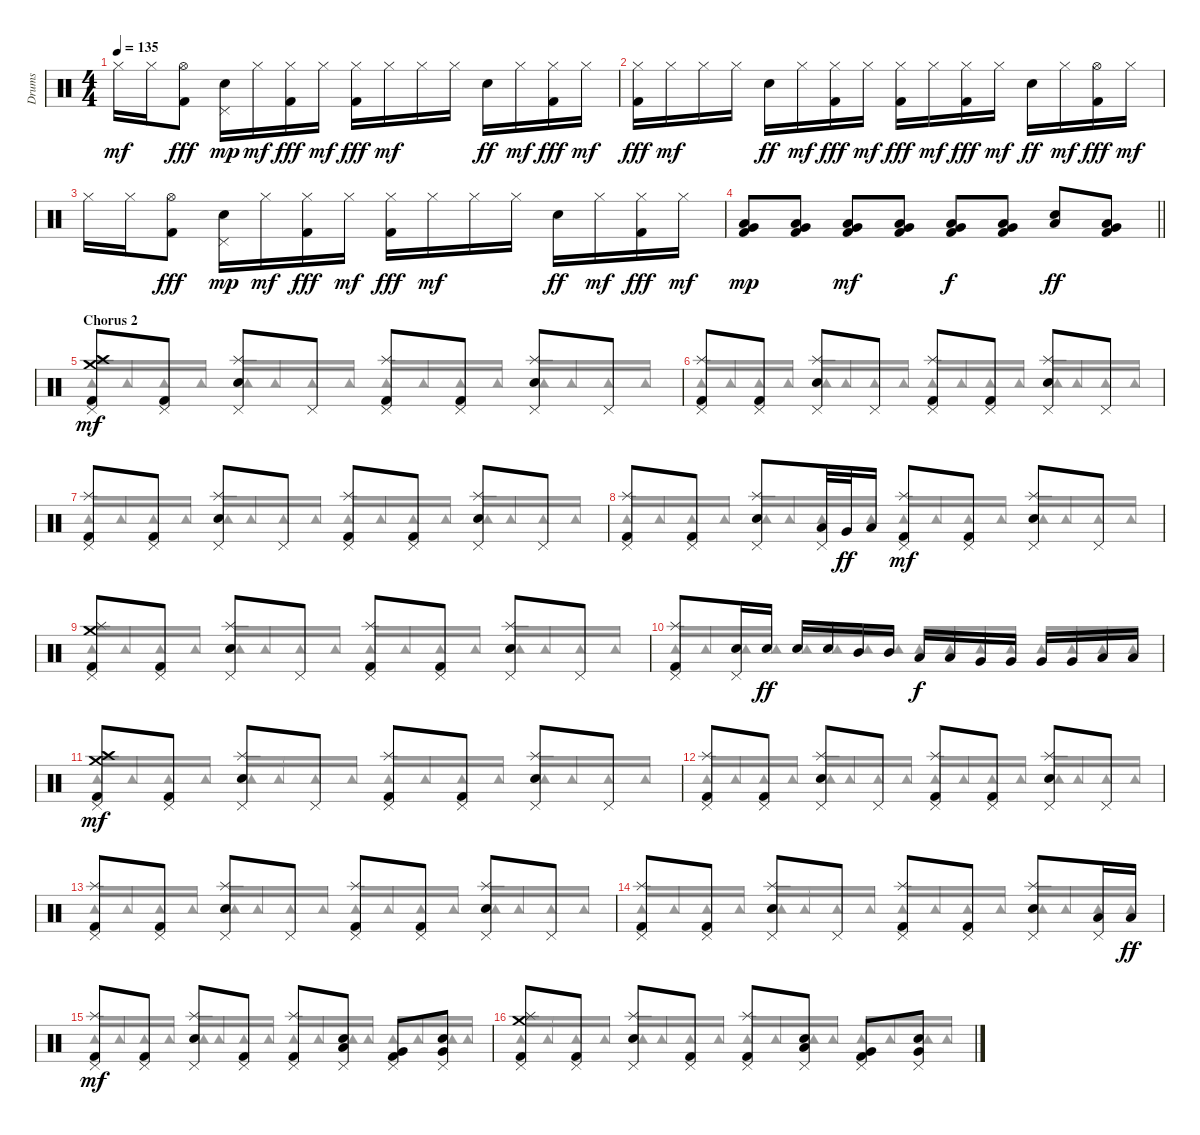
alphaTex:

\track ("Drums" "Drums") {instrument percussion}
\staff {score}
\articulation defaults
\voice
\ts (4 4)
\tempo 135
\clef neutral
\ks c "Hi-Hat (closed)".16{dy mf} "Hi-Hat (closed)".16
("Hi-Hat (open)" "Kick (hit) 2").8{dy fff} ("Snare (hit) 2" "Pedal Hi-Hat (hit)").16{dy mp} "Hi-Hat (closed)".16{dy mf} ("Hi-Hat (closed)" "Kick (hit) 2").16{dy fff} "Hi-Hat (closed)".16{dy mf} ("Hi-Hat (closed)" "Kick (hit) 2").16{dy fff} "Hi-Hat (closed)".16{dy mf} "Hi-Hat (closed)".16 "Hi-Hat (closed)".16 "Snare (hit) 2".16{dy ff} "Hi-Hat (closed)".16{dy mf} ("Hi-Hat (closed)" "Kick (hit) 2").16{dy fff} "Hi-Hat (closed)".16{dy mf} |
("Hi-Hat (closed)" "Kick (hit) 2").16{dy fff} "Hi-Hat (closed)".16{dy mf} "Hi-Hat (closed)".16 "Hi-Hat (closed)".16 "Snare (hit) 2".16{dy ff} "Hi-Hat (closed)".16{dy mf} ("Hi-Hat (closed)" "Kick (hit) 2").16{dy fff} "Hi-Hat (closed)".16{dy mf} ("Hi-Hat (closed)" "Kick (hit) 2").16{dy fff} "Hi-Hat (closed)".16{dy mf} ("Hi-Hat (closed)" "Kick (hit) 2").16{dy fff} "Hi-Hat (closed)".16{dy mf} "Snare (hit) 2".16{dy ff} "Hi-Hat (closed)".16{dy mf} ("Hi-Hat (open)" "Kick (hit) 2").16{dy fff} "Hi-Hat (closed)".16{dy mf} |
"Hi-Hat (closed)".16 "Hi-Hat (closed)".16 ("Hi-Hat (open)" "Kick (hit) 2").8{dy fff} ("Snare (hit) 2" "Pedal Hi-Hat (hit)").16{dy mp} "Hi-Hat (closed)".16{dy mf} ("Hi-Hat (closed)" "Kick (hit) 2").16{dy fff} "Hi-Hat (closed)".16{dy mf} ("Hi-Hat (closed)" "Kick (hit) 2").16{dy fff} "Hi-Hat (closed)".16{dy mf} "Hi-Hat (closed)".16 "Hi-Hat (closed)".16 "Snare (hit) 2".16{dy ff} "Hi-Hat (closed)".16{dy mf} ("Hi-Hat (closed)" "Kick (hit) 2").16{dy fff} "Hi-Hat (closed)".16{dy mf} |
\barLineRight lightlight
("Low Floor Tom (hit)" "Very Low Tom (hit)" "Kick (hit) 2").8{dy mp} ("Low Floor Tom (hit)" "Very Low Tom (hit)" "Kick (hit) 2").8 ("Low Floor Tom (hit)" "Very Low Tom (hit)" "Kick (hit) 2").8{dy mf} ("Low Floor Tom (hit)" "Very Low Tom (hit)" "Kick (hit) 2").8 ("Low Floor Tom (hit)" "Very Low Tom (hit)" "Kick (hit) 2").8{dy f} ("Low Floor Tom (hit)" "Very Low Tom (hit)" "Kick (hit) 2").8 ("Low Tom (hit)" "Snare (hit) 2").8{dy ff} ("Low Floor Tom (hit)" "Very Low Tom (hit)" "Kick (hit) 2").8 |
\section ("" "Chorus 2")
("Crash high (hit)" "Crash medium (hit)" "Kick (hit) 2" "Pedal Hi-Hat (hit)").8{dy mf} ("Kick (hit) 2" "Pedal Hi-Hat (hit)").8 ("Splash (hit)" "Snare (hit) 2" "Pedal Hi-Hat (hit)").8 "Pedal Hi-Hat (hit)".8 ("Splash (hit)" "Kick (hit) 2" "Pedal Hi-Hat (hit)").8 ("Kick (hit) 2" "Pedal Hi-Hat (hit)").8 ("Splash (hit)" "Snare (hit) 2" "Pedal Hi-Hat (hit)").8 "Pedal Hi-Hat (hit)".8 |
("Splash (hit)" "Kick (hit) 2" "Pedal Hi-Hat (hit)").8 ("Kick (hit) 2" "Pedal Hi-Hat (hit)").8 ("Splash (hit)" "Snare (hit) 2" "Pedal Hi-Hat (hit)").8 "Pedal Hi-Hat (hit)".8 ("Splash (hit)" "Kick (hit) 2" "Pedal Hi-Hat (hit)").8 ("Kick (hit) 2" "Pedal Hi-Hat (hit)").8 ("Splash (hit)" "Snare (hit) 2" "Pedal Hi-Hat (hit)").8 "Pedal Hi-Hat (hit)".8 |
("Splash (hit)" "Kick (hit) 2" "Pedal Hi-Hat (hit)").8 ("Kick (hit) 2" "Pedal Hi-Hat (hit)").8 ("Splash (hit)" "Snare (hit) 2" "Pedal Hi-Hat (hit)").8 "Pedal Hi-Hat (hit)".8 ("Splash (hit)" "Kick (hit) 2" "Pedal Hi-Hat (hit)").8 ("Kick (hit) 2" "Pedal Hi-Hat (hit)").8 ("Splash (hit)" "Snare (hit) 2" "Pedal Hi-Hat (hit)").8 "Pedal Hi-Hat (hit)".8 |
("Splash (hit)" "Kick (hit) 2" "Pedal Hi-Hat (hit)").8 ("Kick (hit) 2" "Pedal Hi-Hat (hit)").8 ("Splash (hit)" "Snare (hit) 2" "Pedal Hi-Hat (hit)").8 ("Low Tom (hit)" "Pedal Hi-Hat (hit)").32 "Very Low Tom (hit)".32{dy ff} "Low Floor Tom (hit)".16 ("Splash (hit)" "Kick (hit) 2" "Pedal Hi-Hat (hit)").8{dy mf} ("Kick (hit) 2" "Pedal Hi-Hat (hit)").8 ("Splash (hit)" "Snare (hit) 2" "Pedal Hi-Hat (hit)").8 "Pedal Hi-Hat (hit)".8 |
("Splash (hit)" "Crash medium (hit)" "Kick (hit) 2" "Pedal Hi-Hat (hit)").8 ("Kick (hit) 2" "Pedal Hi-Hat (hit)").8 ("Splash (hit)" "Snare (hit) 2" "Pedal Hi-Hat (hit)").8 "Pedal Hi-Hat (hit)".8 ("Splash (hit)" "Kick (hit) 2" "Pedal Hi-Hat (hit)").8 ("Kick (hit) 2" "Pedal Hi-Hat (hit)").8 ("Splash (hit)" "Snare (hit) 2" "Pedal Hi-Hat (hit)").8 "Pedal Hi-Hat (hit)".8 |
("Splash (hit)" "Kick (hit) 2" "Pedal Hi-Hat (hit)").8 ("Electric Snare (hit)" "Pedal Hi-Hat (hit)").16 "Electric Snare (hit)".16{dy ff} "Snare (hit) 2".16 "Snare (hit) 2".16 "Mid Tom (hit)".16 "Mid Tom (hit)".16 "Low Tom (hit)".16{dy f} "Low Tom (hit)".16 "Very Low Tom (hit)".16 "Very Low Tom (hit)".16 "Very Low Tom (hit)".16 "Very Low Tom (hit)".16 "Low Floor Tom (hit)".16 "Low Floor Tom (hit)".16 |
("Crash high (hit)" "Crash medium (hit)" "Kick (hit) 2" "Pedal Hi-Hat (hit)").8{dy mf} ("Kick (hit) 2" "Pedal Hi-Hat (hit)").8 ("Splash (hit)" "Snare (hit) 2" "Pedal Hi-Hat (hit)").8 "Pedal Hi-Hat (hit)".8 ("Splash (hit)" "Kick (hit) 2" "Pedal Hi-Hat (hit)").8 ("Kick (hit) 2" "Pedal Hi-Hat (hit)").8 ("Splash (hit)" "Snare (hit) 2" "Pedal Hi-Hat (hit)").8 "Pedal Hi-Hat (hit)".8 |
("Splash (hit)" "Kick (hit) 2" "Pedal Hi-Hat (hit)").8 ("Kick (hit) 2" "Pedal Hi-Hat (hit)").8 ("Splash (hit)" "Snare (hit) 2" "Pedal Hi-Hat (hit)").8 "Pedal Hi-Hat (hit)".8 ("Splash (hit)" "Kick (hit) 2" "Pedal Hi-Hat (hit)").8 ("Kick (hit) 2" "Pedal Hi-Hat (hit)").8 ("Splash (hit)" "Snare (hit) 2" "Pedal Hi-Hat (hit)").8 "Pedal Hi-Hat (hit)".8 |
("Splash (hit)" "Kick (hit) 2" "Pedal Hi-Hat (hit)").8 ("Kick (hit) 2" "Pedal Hi-Hat (hit)").8 ("Splash (hit)" "Snare (hit) 2" "Pedal Hi-Hat (hit)").8 "Pedal Hi-Hat (hit)".8 ("Splash (hit)" "Kick (hit) 2" "Pedal Hi-Hat (hit)").8 ("Kick (hit) 2" "Pedal Hi-Hat (hit)").8 ("Splash (hit)" "Snare (hit) 2" "Pedal Hi-Hat (hit)").8 "Pedal Hi-Hat (hit)".8 |
("Splash (hit)" "Kick (hit) 2" "Pedal Hi-Hat (hit)").8 ("Kick (hit) 2" "Pedal Hi-Hat (hit)").8 ("Splash (hit)" "Snare (hit) 2" "Pedal Hi-Hat (hit)").8 "Pedal Hi-Hat (hit)".8 ("Splash (hit)" "Kick (hit) 2" "Pedal Hi-Hat (hit)").8 ("Kick (hit) 2" "Pedal Hi-Hat (hit)").8 ("Splash (hit)" "Snare (hit) 2" "Pedal Hi-Hat (hit)").8 ("Low Tom (hit)" "Pedal Hi-Hat (hit)").16 "Low Tom (hit)".16{dy ff} |
("Splash (hit)" "Kick (hit) 2" "Pedal Hi-Hat (hit)").8{dy mf} ("Kick (hit) 2" "Pedal Hi-Hat (hit)").8 ("Splash (hit)" "Snare (hit) 2" "Pedal Hi-Hat (hit)").8 ("Kick (hit) 2" "Pedal Hi-Hat (hit)").8 ("Splash (hit)" "Kick (hit) 2" "Pedal Hi-Hat (hit)").8 ("Low Tom (hit)" "Snare (hit) 2" "Pedal Hi-Hat (hit)").8 ("Very Low Tom (hit)" "Kick (hit) 2" "Pedal Hi-Hat (hit)").8 ("Very Low Tom (hit)" "Snare (hit) 2" "Pedal Hi-Hat (hit)").8 |
("Splash (hit)" "Crash medium (hit)" "Kick (hit) 2" "Pedal Hi-Hat (hit)").8 ("Kick (hit) 2" "Pedal Hi-Hat (hit)").8 ("Splash (hit)" "Snare (hit) 2" "Pedal Hi-Hat (hit)").8 ("Kick (hit) 2" "Pedal Hi-Hat (hit)").8 ("Splash (hit)" "Kick (hit) 2" "Pedal Hi-Hat (hit)").8 ("Low Tom (hit)" "Snare (hit) 2" "Pedal Hi-Hat (hit)").8 ("Very Low Tom (hit)" "Kick (hit) 2" "Pedal Hi-Hat (hit)").8 ("Very Low Tom (hit)" "Snare (hit) 2" "Pedal Hi-Hat (hit)").8
\voice
\clef neutral
\ottava regular
\simile none
\ks c
|
|
|
\barLineRight lightlight
|
"Tambourine (hit)".16{beam Up} "Tambourine (hit)".16{beam Up} "Tambourine (hit)".16{beam Up} "Tambourine (hit)".16{beam Up} "Tambourine (hit)".16{beam Up} "Tambourine (hit)".16{beam Up} "Tambourine (hit)".16{beam Up} "Tambourine (hit)".16{beam Up} "Tambourine (hit)".16{beam Up} "Tambourine (hit)".16{beam Up} "Tambourine (hit)".16{beam Up} "Tambourine (hit)".16{beam Up} "Tambourine (hit)".16{beam Up} "Tambourine (hit)".16{beam Up} "Tambourine (hit)".16{beam Up} "Tambourine (hit)".16{beam Up} |
"Tambourine (hit)".16{beam Up} "Tambourine (hit)".16{beam Up} "Tambourine (hit)".16{beam Up} "Tambourine (hit)".16{beam Up} "Tambourine (hit)".16{beam Up} "Tambourine (hit)".16{beam Up} "Tambourine (hit)".16{beam Up} "Tambourine (hit)".16{beam Up} "Tambourine (hit)".16{beam Up} "Tambourine (hit)".16{beam Up} "Tambourine (hit)".16{beam Up} "Tambourine (hit)".16{beam Up} "Tambourine (hit)".16{beam Up} "Tambourine (hit)".16{beam Up} "Tambourine (hit)".16{beam Up} "Tambourine (hit)".16{beam Up} |
"Tambourine (hit)".16{beam Up} "Tambourine (hit)".16{beam Up} "Tambourine (hit)".16{beam Up} "Tambourine (hit)".16{beam Up} "Tambourine (hit)".16{beam Up} "Tambourine (hit)".16{beam Up} "Tambourine (hit)".16{beam Up} "Tambourine (hit)".16{beam Up} "Tambourine (hit)".16{beam Up} "Tambourine (hit)".16{beam Up} "Tambourine (hit)".16{beam Up} "Tambourine (hit)".16{beam Up} "Tambourine (hit)".16{beam Up} "Tambourine (hit)".16{beam Up} "Tambourine (hit)".16{beam Up} "Tambourine (hit)".16{beam Up} |
"Tambourine (hit)".16{beam Up} "Tambourine (hit)".16{beam Up} "Tambourine (hit)".16{beam Up} "Tambourine (hit)".16{beam Up} "Tambourine (hit)".16{beam Up} "Tambourine (hit)".16{beam Up} "Tambourine (hit)".16{beam Up} "Tambourine (hit)".16{beam Up} "Tambourine (hit)".16{beam Up} "Tambourine (hit)".16{beam Up} "Tambourine (hit)".16{beam Up} "Tambourine (hit)".16{beam Up} "Tambourine (hit)".16{beam Up} "Tambourine (hit)".16{beam Up} "Tambourine (hit)".16{beam Up} "Tambourine (hit)".16{beam Up} |
"Tambourine (hit)".16{beam Up} "Tambourine (hit)".16{beam Up} "Tambourine (hit)".16{beam Up} "Tambourine (hit)".16{beam Up} "Tambourine (hit)".16{beam Up} "Tambourine (hit)".16{beam Up} "Tambourine (hit)".16{beam Up} "Tambourine (hit)".16{beam Up} "Tambourine (hit)".16{beam Up} "Tambourine (hit)".16{beam Up} "Tambourine (hit)".16{beam Up} "Tambourine (hit)".16{beam Up} "Tambourine (hit)".16{beam Up} "Tambourine (hit)".16{beam Up} "Tambourine (hit)".16{beam Up} "Tambourine (hit)".16{beam Up} |
"Tambourine (hit)".16{beam Up} "Tambourine (hit)".16{beam Up} "Tambourine (hit)".16{beam Up} "Tambourine (hit)".16{beam Up} "Tambourine (hit)".16{beam Up} "Tambourine (hit)".16{beam Up} "Tambourine (hit)".16{beam Up} "Tambourine (hit)".16{beam Up} "Tambourine (hit)".16{beam Up} "Tambourine (hit)".16{beam Up} "Tambourine (hit)".16{beam Up} "Tambourine (hit)".16{beam Up} "Tambourine (hit)".16{beam Up} "Tambourine (hit)".16{beam Up} "Tambourine (hit)".16{beam Up} "Tambourine (hit)".16{beam Up} |
"Tambourine (hit)".16{beam Up} "Tambourine (hit)".16{beam Up} "Tambourine (hit)".16{beam Up} "Tambourine (hit)".16{beam Up} "Tambourine (hit)".16{beam Up} "Tambourine (hit)".16{beam Up} "Tambourine (hit)".16{beam Up} "Tambourine (hit)".16{beam Up} "Tambourine (hit)".16{beam Up} "Tambourine (hit)".16{beam Up} "Tambourine (hit)".16{beam Up} "Tambourine (hit)".16{beam Up} "Tambourine (hit)".16{beam Up} "Tambourine (hit)".16{beam Up} "Tambourine (hit)".16{beam Up} "Tambourine (hit)".16{beam Up} |
"Tambourine (hit)".16{beam Up} "Tambourine (hit)".16{beam Up} "Tambourine (hit)".16{beam Up} "Tambourine (hit)".16{beam Up} "Tambourine (hit)".16{beam Up} "Tambourine (hit)".16{beam Up} "Tambourine (hit)".16{beam Up} "Tambourine (hit)".16{beam Up} "Tambourine (hit)".16{beam Up} "Tambourine (hit)".16{beam Up} "Tambourine (hit)".16{beam Up} "Tambourine (hit)".16{beam Up} "Tambourine (hit)".16{beam Up} "Tambourine (hit)".16{beam Up} "Tambourine (hit)".16{beam Up} "Tambourine (hit)".16{beam Up} |
"Tambourine (hit)".16{beam Up} "Tambourine (hit)".16{beam Up} "Tambourine (hit)".16{beam Up} "Tambourine (hit)".16{beam Up} "Tambourine (hit)".16{beam Up} "Tambourine (hit)".16{beam Up} "Tambourine (hit)".16{beam Up} "Tambourine (hit)".16{beam Up} "Tambourine (hit)".16{beam Up} "Tambourine (hit)".16{beam Up} "Tambourine (hit)".16{beam Up} "Tambourine (hit)".16{beam Up} "Tambourine (hit)".16{beam Up} "Tambourine (hit)".16{beam Up} "Tambourine (hit)".16{beam Up} "Tambourine (hit)".16{beam Up} |
"Tambourine (hit)".16{beam Up} "Tambourine (hit)".16{beam Up} "Tambourine (hit)".16{beam Up} "Tambourine (hit)".16{beam Up} "Tambourine (hit)".16{beam Up} "Tambourine (hit)".16{beam Up} "Tambourine (hit)".16{beam Up} "Tambourine (hit)".16{beam Up} "Tambourine (hit)".16{beam Up} "Tambourine (hit)".16{beam Up} "Tambourine (hit)".16{beam Up} "Tambourine (hit)".16{beam Up} "Tambourine (hit)".16{beam Up} "Tambourine (hit)".16{beam Up} "Tambourine (hit)".16{beam Up} "Tambourine (hit)".16{beam Up} |
"Tambourine (hit)".16{beam Up} "Tambourine (hit)".16{beam Up} "Tambourine (hit)".16{beam Up} "Tambourine (hit)".16{beam Up} "Tambourine (hit)".16{beam Up} "Tambourine (hit)".16{beam Up} "Tambourine (hit)".16{beam Up} "Tambourine (hit)".16{beam Up} "Tambourine (hit)".16{beam Up} "Tambourine (hit)".16{beam Up} "Tambourine (hit)".16{beam Up} "Tambourine (hit)".16{beam Up} "Tambourine (hit)".16{beam Up} "Tambourine (hit)".16{beam Up} "Tambourine (hit)".16{beam Up} "Tambourine (hit)".16{beam Up} |
"Tambourine (hit)".16{beam Up} "Tambourine (hit)".16{beam Up} "Tambourine (hit)".16{beam Up} "Tambourine (hit)".16{beam Up} "Tambourine (hit)".16{beam Up} "Tambourine (hit)".16{beam Up} "Tambourine (hit)".16{beam Up} "Tambourine (hit)".16{beam Up} "Tambourine (hit)".16{beam Up} "Tambourine (hit)".16{beam Up} "Tambourine (hit)".16{beam Up} "Tambourine (hit)".16{beam Up} "Tambourine (hit)".16{beam Up} "Tambourine (hit)".16{beam Up} "Tambourine (hit)".16{beam Up} "Tambourine (hit)".16{beam Up}
